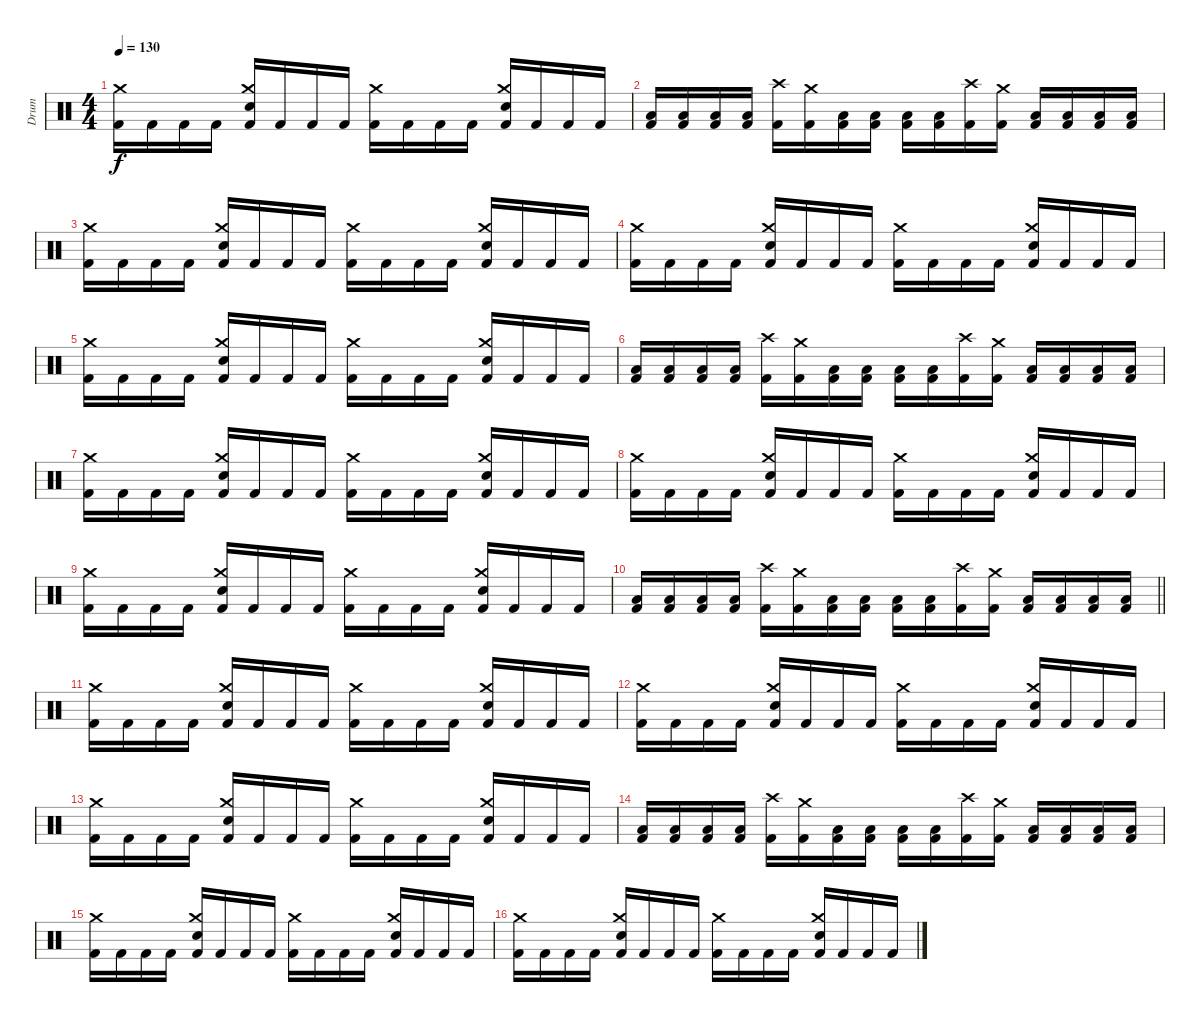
\track ("Drum" "Drum") {instrument percussion}
\staff {score}
\articulation defaults
\ts (4 4)
\tempo 130
\clef neutral
\ks c
("Kick (hit) 2" "Crash medium (hit)").16{dy f} "Kick (hit) 2".16 "Kick (hit) 2".16 "Kick (hit) 2".16 ("Kick (hit) 2" "Electric Snare (hit)" "Crash medium (hit)").16 "Kick (hit) 2".16 "Kick (hit) 2".16 "Kick (hit) 2".16 ("Kick (hit) 2" "Crash medium (hit)").16 "Kick (hit) 2".16 "Kick (hit) 2".16 "Kick (hit) 2".16 ("Kick (hit) 2" "Electric Snare (hit)" "Crash medium (hit)").16 "Kick (hit) 2".16 "Kick (hit) 2".16 "Kick (hit) 2".16 |
("Kick (hit) 2" "Low Floor Tom (hit)").16 ("Kick (hit) 2" "Low Floor Tom (hit)").16 ("Kick (hit) 2" "Low Floor Tom (hit)").16 ("Kick (hit) 2" "Low Floor Tom (hit)").16 ("Kick (hit) 2" "Crash high (hit)").16 ("Kick (hit) 2" "Crash medium (hit)").16 ("Kick (hit) 2" "Low Floor Tom (hit)").16 ("Kick (hit) 2" "Low Floor Tom (hit)").16 ("Kick (hit) 2" "Low Floor Tom (hit)").16 ("Kick (hit) 2" "Low Floor Tom (hit)").16 ("Kick (hit) 2" "Crash high (hit)").16 ("Kick (hit) 2" "Crash medium (hit)").16 ("Kick (hit) 2" "Low Floor Tom (hit)").16 ("Kick (hit) 2" "Low Floor Tom (hit)").16 ("Kick (hit) 2" "Low Floor Tom (hit)").16 ("Kick (hit) 2" "Low Floor Tom (hit)").16 |
("Kick (hit) 2" "Crash medium (hit)").16 "Kick (hit) 2".16 "Kick (hit) 2".16 "Kick (hit) 2".16 ("Kick (hit) 2" "Electric Snare (hit)" "Crash medium (hit)").16 "Kick (hit) 2".16 "Kick (hit) 2".16 "Kick (hit) 2".16 ("Kick (hit) 2" "Crash medium (hit)").16 "Kick (hit) 2".16 "Kick (hit) 2".16 "Kick (hit) 2".16 ("Kick (hit) 2" "Electric Snare (hit)" "Crash medium (hit)").16 "Kick (hit) 2".16 "Kick (hit) 2".16 "Kick (hit) 2".16 |
("Kick (hit) 2" "Crash medium (hit)").16 "Kick (hit) 2".16 "Kick (hit) 2".16 "Kick (hit) 2".16 ("Kick (hit) 2" "Electric Snare (hit)" "Crash medium (hit)").16 "Kick (hit) 2".16 "Kick (hit) 2".16 "Kick (hit) 2".16 ("Kick (hit) 2" "Crash medium (hit)").16 "Kick (hit) 2".16 "Kick (hit) 2".16 "Kick (hit) 2".16 ("Kick (hit) 2" "Electric Snare (hit)" "Crash medium (hit)").16 "Kick (hit) 2".16 "Kick (hit) 2".16 "Kick (hit) 2".16 |
("Kick (hit) 2" "Crash medium (hit)").16 "Kick (hit) 2".16 "Kick (hit) 2".16 "Kick (hit) 2".16 ("Kick (hit) 2" "Electric Snare (hit)" "Crash medium (hit)").16 "Kick (hit) 2".16 "Kick (hit) 2".16 "Kick (hit) 2".16 ("Kick (hit) 2" "Crash medium (hit)").16 "Kick (hit) 2".16 "Kick (hit) 2".16 "Kick (hit) 2".16 ("Kick (hit) 2" "Electric Snare (hit)" "Crash medium (hit)").16 "Kick (hit) 2".16 "Kick (hit) 2".16 "Kick (hit) 2".16 |
("Kick (hit) 2" "Low Floor Tom (hit)").16 ("Kick (hit) 2" "Low Floor Tom (hit)").16 ("Kick (hit) 2" "Low Floor Tom (hit)").16 ("Kick (hit) 2" "Low Floor Tom (hit)").16 ("Kick (hit) 2" "Crash high (hit)").16 ("Kick (hit) 2" "Crash medium (hit)").16 ("Kick (hit) 2" "Low Floor Tom (hit)").16 ("Kick (hit) 2" "Low Floor Tom (hit)").16 ("Kick (hit) 2" "Low Floor Tom (hit)").16 ("Kick (hit) 2" "Low Floor Tom (hit)").16 ("Kick (hit) 2" "Crash high (hit)").16 ("Kick (hit) 2" "Crash medium (hit)").16 ("Kick (hit) 2" "Low Floor Tom (hit)").16 ("Kick (hit) 2" "Low Floor Tom (hit)").16 ("Kick (hit) 2" "Low Floor Tom (hit)").16 ("Kick (hit) 2" "Low Floor Tom (hit)").16 |
("Kick (hit) 2" "Crash medium (hit)").16 "Kick (hit) 2".16 "Kick (hit) 2".16 "Kick (hit) 2".16 ("Kick (hit) 2" "Electric Snare (hit)" "Crash medium (hit)").16 "Kick (hit) 2".16 "Kick (hit) 2".16 "Kick (hit) 2".16 ("Kick (hit) 2" "Crash medium (hit)").16 "Kick (hit) 2".16 "Kick (hit) 2".16 "Kick (hit) 2".16 ("Kick (hit) 2" "Electric Snare (hit)" "Crash medium (hit)").16 "Kick (hit) 2".16 "Kick (hit) 2".16 "Kick (hit) 2".16 |
("Kick (hit) 2" "Crash medium (hit)").16 "Kick (hit) 2".16 "Kick (hit) 2".16 "Kick (hit) 2".16 ("Kick (hit) 2" "Electric Snare (hit)" "Crash medium (hit)").16 "Kick (hit) 2".16 "Kick (hit) 2".16 "Kick (hit) 2".16 ("Kick (hit) 2" "Crash medium (hit)").16 "Kick (hit) 2".16 "Kick (hit) 2".16 "Kick (hit) 2".16 ("Kick (hit) 2" "Electric Snare (hit)" "Crash medium (hit)").16 "Kick (hit) 2".16 "Kick (hit) 2".16 "Kick (hit) 2".16 |
("Kick (hit) 2" "Crash medium (hit)").16 "Kick (hit) 2".16 "Kick (hit) 2".16 "Kick (hit) 2".16 ("Kick (hit) 2" "Electric Snare (hit)" "Crash medium (hit)").16 "Kick (hit) 2".16 "Kick (hit) 2".16 "Kick (hit) 2".16 ("Kick (hit) 2" "Crash medium (hit)").16 "Kick (hit) 2".16 "Kick (hit) 2".16 "Kick (hit) 2".16 ("Kick (hit) 2" "Electric Snare (hit)" "Crash medium (hit)").16 "Kick (hit) 2".16 "Kick (hit) 2".16 "Kick (hit) 2".16 |
\barLineRight lightlight
("Kick (hit) 2" "Low Floor Tom (hit)").16 ("Kick (hit) 2" "Low Floor Tom (hit)").16 ("Kick (hit) 2" "Low Floor Tom (hit)").16 ("Kick (hit) 2" "Low Floor Tom (hit)").16 ("Kick (hit) 2" "Crash high (hit)").16 ("Kick (hit) 2" "Crash medium (hit)").16 ("Kick (hit) 2" "Low Floor Tom (hit)").16 ("Kick (hit) 2" "Low Floor Tom (hit)").16 ("Kick (hit) 2" "Low Floor Tom (hit)").16 ("Kick (hit) 2" "Low Floor Tom (hit)").16 ("Kick (hit) 2" "Crash high (hit)").16 ("Kick (hit) 2" "Crash medium (hit)").16 ("Kick (hit) 2" "Low Floor Tom (hit)").16 ("Kick (hit) 2" "Low Floor Tom (hit)").16 ("Kick (hit) 2" "Low Floor Tom (hit)").16 ("Kick (hit) 2" "Low Floor Tom (hit)").16 |
("Kick (hit) 2" "Crash medium (hit)").16 "Kick (hit) 2".16 "Kick (hit) 2".16 "Kick (hit) 2".16 ("Kick (hit) 2" "Electric Snare (hit)" "Crash medium (hit)").16 "Kick (hit) 2".16 "Kick (hit) 2".16 "Kick (hit) 2".16 ("Kick (hit) 2" "Crash medium (hit)").16 "Kick (hit) 2".16 "Kick (hit) 2".16 "Kick (hit) 2".16 ("Kick (hit) 2" "Electric Snare (hit)" "Crash medium (hit)").16 "Kick (hit) 2".16 "Kick (hit) 2".16 "Kick (hit) 2".16 |
("Kick (hit) 2" "Crash medium (hit)").16 "Kick (hit) 2".16 "Kick (hit) 2".16 "Kick (hit) 2".16 ("Kick (hit) 2" "Electric Snare (hit)" "Crash medium (hit)").16 "Kick (hit) 2".16 "Kick (hit) 2".16 "Kick (hit) 2".16 ("Kick (hit) 2" "Crash medium (hit)").16 "Kick (hit) 2".16 "Kick (hit) 2".16 "Kick (hit) 2".16 ("Kick (hit) 2" "Electric Snare (hit)" "Crash medium (hit)").16 "Kick (hit) 2".16 "Kick (hit) 2".16 "Kick (hit) 2".16 |
("Kick (hit) 2" "Crash medium (hit)").16 "Kick (hit) 2".16 "Kick (hit) 2".16 "Kick (hit) 2".16 ("Kick (hit) 2" "Electric Snare (hit)" "Crash medium (hit)").16 "Kick (hit) 2".16 "Kick (hit) 2".16 "Kick (hit) 2".16 ("Kick (hit) 2" "Crash medium (hit)").16 "Kick (hit) 2".16 "Kick (hit) 2".16 "Kick (hit) 2".16 ("Kick (hit) 2" "Electric Snare (hit)" "Crash medium (hit)").16 "Kick (hit) 2".16 "Kick (hit) 2".16 "Kick (hit) 2".16 |
("Kick (hit) 2" "Low Floor Tom (hit)").16 ("Kick (hit) 2" "Low Floor Tom (hit)").16 ("Kick (hit) 2" "Low Floor Tom (hit)").16 ("Kick (hit) 2" "Low Floor Tom (hit)").16 ("Kick (hit) 2" "Crash high (hit)").16 ("Kick (hit) 2" "Crash medium (hit)").16 ("Kick (hit) 2" "Low Floor Tom (hit)").16 ("Kick (hit) 2" "Low Floor Tom (hit)").16 ("Kick (hit) 2" "Low Floor Tom (hit)").16 ("Kick (hit) 2" "Low Floor Tom (hit)").16 ("Kick (hit) 2" "Crash high (hit)").16 ("Kick (hit) 2" "Crash medium (hit)").16 ("Kick (hit) 2" "Low Floor Tom (hit)").16 ("Kick (hit) 2" "Low Floor Tom (hit)").16 ("Kick (hit) 2" "Low Floor Tom (hit)").16 ("Kick (hit) 2" "Low Floor Tom (hit)").16 |
("Kick (hit) 2" "Crash medium (hit)").16 "Kick (hit) 2".16 "Kick (hit) 2".16 "Kick (hit) 2".16 ("Kick (hit) 2" "Electric Snare (hit)" "Crash medium (hit)").16 "Kick (hit) 2".16 "Kick (hit) 2".16 "Kick (hit) 2".16 ("Kick (hit) 2" "Crash medium (hit)").16 "Kick (hit) 2".16 "Kick (hit) 2".16 "Kick (hit) 2".16 ("Kick (hit) 2" "Electric Snare (hit)" "Crash medium (hit)").16 "Kick (hit) 2".16 "Kick (hit) 2".16 "Kick (hit) 2".16 |
("Kick (hit) 2" "Crash medium (hit)").16 "Kick (hit) 2".16 "Kick (hit) 2".16 "Kick (hit) 2".16 ("Kick (hit) 2" "Electric Snare (hit)" "Crash medium (hit)").16 "Kick (hit) 2".16 "Kick (hit) 2".16 "Kick (hit) 2".16 ("Kick (hit) 2" "Crash medium (hit)").16 "Kick (hit) 2".16 "Kick (hit) 2".16 "Kick (hit) 2".16 ("Kick (hit) 2" "Electric Snare (hit)" "Crash medium (hit)").16 "Kick (hit) 2".16 "Kick (hit) 2".16 "Kick (hit) 2".16
